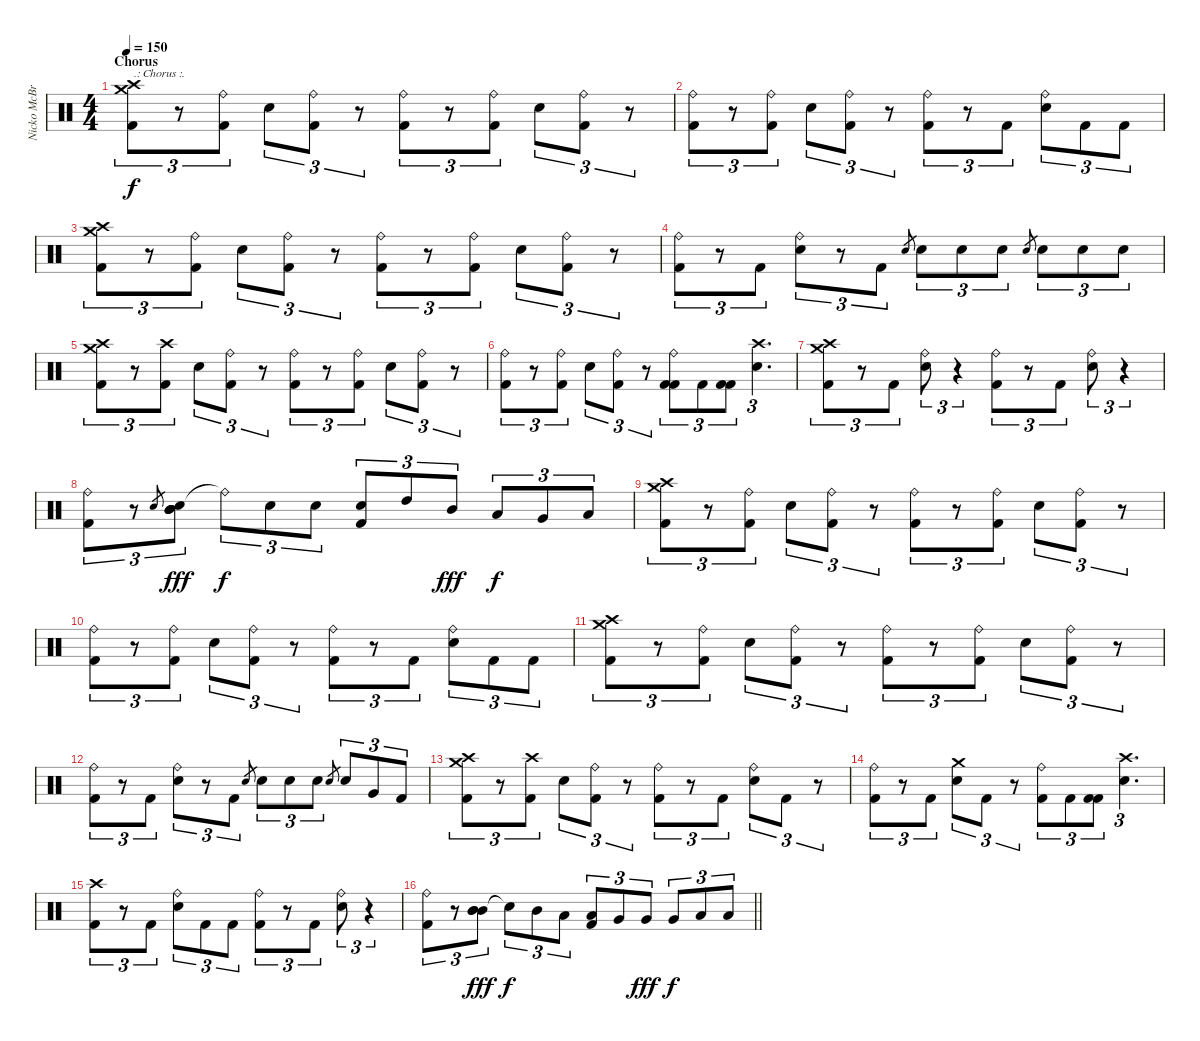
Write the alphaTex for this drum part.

\track ("Nicko McBrain" "Nicko McBr") {instrument percussion}
\staff {score}
\articulation defaults
\ts (4 4)
\section ("" "Chorus")
\tempo 150
\clef neutral
\ks c
("Crash medium (hit)" "Crash high (hit)" "Kick (hit) 2").8{tu (3 2) txt ".: Chorus :." dy f} r.8{tu (3 2)} ("Kick (hit) 2" "Ride (bell)").8{tu (3 2)} "Electric Snare (hit)".8{tu (3 2)} ("Ride (bell)" "Kick (hit) 2").8{tu (3 2)} r.8{tu (3 2)} ("Kick (hit) 2" "Ride (bell)").8{tu (3 2)} r.8{tu (3 2)} ("Ride (bell)" "Kick (hit) 2").8{tu (3 2)} "Electric Snare (hit)".8{tu (3 2)} ("Ride (bell)" "Kick (hit) 2").8{tu (3 2)} r.8{tu (3 2)} |
("Ride (bell)" "Kick (hit) 2").8{tu (3 2)} r.8{tu (3 2)} ("Kick (hit) 2" "Ride (bell)").8{tu (3 2)} "Electric Snare (hit)".8{tu (3 2)} ("Ride (bell)" "Kick (hit) 2").8{tu (3 2)} r.8{tu (3 2)} ("Kick (hit) 2" "Ride (bell)").8{tu (3 2)} r.8{tu (3 2)} "Kick (hit) 2".8{tu (3 2)} ("Ride (bell)" "Electric Snare (hit)").8{tu (3 2)} "Kick (hit) 2".8{tu (3 2)} "Kick (hit) 2".8{tu (3 2)} |
("Crash medium (hit)" "Crash high (hit)" "Kick (hit) 2").8{tu (3 2)} r.8{tu (3 2)} ("Kick (hit) 2" "Ride (bell)").8{tu (3 2)} "Electric Snare (hit)".8{tu (3 2)} ("Ride (bell)" "Kick (hit) 2").8{tu (3 2)} r.8{tu (3 2)} ("Kick (hit) 2" "Ride (bell)").8{tu (3 2)} r.8{tu (3 2)} ("Ride (bell)" "Kick (hit) 2").8{tu (3 2)} "Electric Snare (hit)".8{tu (3 2)} ("Ride (bell)" "Kick (hit) 2").8{tu (3 2)} r.8{tu (3 2)} |
("Ride (bell)" "Kick (hit) 2").8{tu (3 2)} r.8{tu (3 2)} "Kick (hit) 2".8{tu (3 2)} ("Ride (bell)" "Electric Snare (hit)").8{tu (3 2)} r.8{tu (3 2)} "Kick (hit) 2".8{tu (3 2)} "Electric Snare (hit)".8{gr} "Electric Snare (hit)".8{tu (3 2)} "Electric Snare (hit)".8{tu (3 2)} "Electric Snare (hit)".8{tu (3 2)} "Electric Snare (hit)".8{gr} "Electric Snare (hit)".8{tu (3 2)} "Electric Snare (hit)".8{tu (3 2)} "Electric Snare (hit)".8{tu (3 2)} |
("Crash medium (hit)" "Crash high (hit)" "Kick (hit) 2").8{tu (3 2)} r.8{tu (3 2)} ("Kick (hit) 2" "Crash high (hit)").8{tu (3 2)} "Electric Snare (hit)".8{tu (3 2)} ("Ride (bell)" "Kick (hit) 2").8{tu (3 2)} r.8{tu (3 2)} ("Kick (hit) 2" "Ride (bell)").8{tu (3 2)} r.8{tu (3 2)} ("Ride (bell)" "Kick (hit) 2").8{tu (3 2)} "Electric Snare (hit)".8{tu (3 2)} ("Ride (bell)" "Kick (hit) 2").8{tu (3 2)} r.8{tu (3 2)} |
("Ride (bell)" "Kick (hit) 2").8{tu (3 2)} r.8{tu (3 2)} ("Kick (hit) 2" "Ride (bell)").8{tu (3 2)} "Electric Snare (hit)".8{tu (3 2)} ("Ride (bell)" "Kick (hit) 2").8{tu (3 2)} r.8{tu (3 2)} ("Kick (hit) 2" "Ride (bell)" "Kick (hit) 2").8{tu (3 2)} "Kick (hit) 2".8{tu (3 2)} ("Kick (hit) 2" "Kick (hit) 2").8{tu (3 2)} ("Crash high (hit)" "Electric Snare (hit)").4{d tu (3 2)} |
("Crash high (hit)" "Crash medium (hit)" "Kick (hit) 2").8{tu (3 2)} r.8{tu (3 2)} "Kick (hit) 2".8{tu (3 2)} ("Ride (bell)" "Electric Snare (hit)").8{tu (3 2)} r.4{tu (3 2)} ("Kick (hit) 2" "Ride (bell)").8{tu (3 2)} r.8{tu (3 2)} "Kick (hit) 2".8{tu (3 2)} ("Ride (bell)" "Electric Snare (hit)").8{tu (3 2)} r.4{tu (3 2)} |
("Ride (bell)" "Kick (hit) 2").8{tu (3 2)} r.8{tu (3 2)} "Electric Snare (hit)".8{gr} ("Electric Snare (hit)" "Mid Tom (hit)" "Mid Tom (hit)" "Mid Tom (hit)").8{tu (3 2) dy fff} "Ride (bell)"{t}.8{tu (3 2) dy f} "Electric Snare (hit)".8{tu (3 2)} "Electric Snare (hit)".8{tu (3 2)} ("Kick (hit) 2" "Electric Snare (hit)").8{tu (3 2)} "High Tom (hit)".8{tu (3 2)} "Mid Tom (hit)".8{tu (3 2) dy fff} "Low Tom (hit)".8{tu (3 2) dy f} "Very Low Tom (hit)".8{tu (3 2)} "Low Floor Tom (hit)".8{tu (3 2)} |
("Crash medium (hit)" "Crash high (hit)" "Kick (hit) 2").8{tu (3 2)} r.8{tu (3 2)} ("Kick (hit) 2" "Ride (bell)").8{tu (3 2)} "Electric Snare (hit)".8{tu (3 2)} ("Ride (bell)" "Kick (hit) 2").8{tu (3 2)} r.8{tu (3 2)} ("Kick (hit) 2" "Ride (bell)").8{tu (3 2)} r.8{tu (3 2)} ("Ride (bell)" "Kick (hit) 2").8{tu (3 2)} "Electric Snare (hit)".8{tu (3 2)} ("Ride (bell)" "Kick (hit) 2").8{tu (3 2)} r.8{tu (3 2)} |
("Ride (bell)" "Kick (hit) 2").8{tu (3 2)} r.8{tu (3 2)} ("Kick (hit) 2" "Ride (bell)").8{tu (3 2)} "Electric Snare (hit)".8{tu (3 2)} ("Ride (bell)" "Kick (hit) 2").8{tu (3 2)} r.8{tu (3 2)} ("Kick (hit) 2" "Ride (bell)").8{tu (3 2)} r.8{tu (3 2)} "Kick (hit) 2".8{tu (3 2)} ("Ride (bell)" "Electric Snare (hit)").8{tu (3 2)} "Kick (hit) 2".8{tu (3 2)} "Kick (hit) 2".8{tu (3 2)} |
("Crash medium (hit)" "Crash high (hit)" "Kick (hit) 2").8{tu (3 2)} r.8{tu (3 2)} ("Kick (hit) 2" "Ride (bell)").8{tu (3 2)} "Electric Snare (hit)".8{tu (3 2)} ("Ride (bell)" "Kick (hit) 2").8{tu (3 2)} r.8{tu (3 2)} ("Kick (hit) 2" "Ride (bell)").8{tu (3 2)} r.8{tu (3 2)} ("Ride (bell)" "Kick (hit) 2").8{tu (3 2)} "Electric Snare (hit)".8{tu (3 2)} ("Ride (bell)" "Kick (hit) 2").8{tu (3 2)} r.8{tu (3 2)} |
("Ride (bell)" "Kick (hit) 2").8{tu (3 2)} r.8{tu (3 2)} "Kick (hit) 2".8{tu (3 2)} ("Ride (bell)" "Electric Snare (hit)").8{tu (3 2)} r.8{tu (3 2)} "Kick (hit) 2".8{tu (3 2)} "Electric Snare (hit)".8{gr} "Electric Snare (hit)".8{tu (3 2)} "Electric Snare (hit)".8{tu (3 2)} "Electric Snare (hit)".8{tu (3 2)} "Electric Snare (hit)".8{gr} "Electric Snare (hit)".8{tu (3 2)} "Very Low Tom (hit)".8{tu (3 2)} "Kick (hit) 2".8{tu (3 2)} |
("Crash medium (hit)" "Crash high (hit)" "Kick (hit) 2").8{tu (3 2)} r.8{tu (3 2)} ("Kick (hit) 2" "Crash high (hit)").8{tu (3 2)} "Electric Snare (hit)".8{tu (3 2)} ("Ride (bell)" "Kick (hit) 2").8{tu (3 2)} r.8{tu (3 2)} ("Kick (hit) 2" "Ride (bell)").8{tu (3 2)} r.8{tu (3 2)} "Kick (hit) 2".8{tu (3 2)} ("Ride (bell)" "Electric Snare (hit)").8{tu (3 2)} "Kick (hit) 2".8{tu (3 2)} r.8{tu (3 2)} |
("Ride (bell)" "Kick (hit) 2").8{tu (3 2)} r.8{tu (3 2)} "Kick (hit) 2".8{tu (3 2)} ("Crash medium (hit)" "Electric Snare (hit)").8{tu (3 2)} "Kick (hit) 2".8{tu (3 2)} r.8{tu (3 2)} ("Ride (bell)" "Kick (hit) 2").8{tu (3 2)} "Kick (hit) 2".8{tu (3 2)} ("Kick (hit) 2" "Kick (hit) 2").8{tu (3 2)} ("Crash high (hit)" "Electric Snare (hit)").4{d tu (3 2)} |
("Crash high (hit)" "Kick (hit) 2").8{tu (3 2)} r.8{tu (3 2)} "Kick (hit) 2".8{tu (3 2)} ("Ride (bell)" "Electric Snare (hit)").8{tu (3 2)} "Kick (hit) 2".8{tu (3 2)} "Kick (hit) 2".8{tu (3 2)} ("Kick (hit) 2" "Ride (bell)").8{tu (3 2)} r.8{tu (3 2)} "Kick (hit) 2".8{tu (3 2)} ("Ride (bell)" "Electric Snare (hit)").8{tu (3 2)} r.4{tu (3 2)} |
\barLineRight lightlight
("Ride (bell)" "Kick (hit) 2").8{tu (3 2)} r.8{tu (3 2)} ("Mid Tom (hit)" "Mid Tom (hit)" "Mid Tom (hit)").8{tu (3 2) dy fff} "Snare (hit)"{t}.8{tu (3 2) dy f} "Mid Tom (hit)".8{tu (3 2)} "Low Tom (hit)".8{tu (3 2)} ("Kick (hit) 2" "Low Tom (hit)").8{tu (3 2)} "Very Low Tom (hit)".8{tu (3 2)} "Very Low Tom (hit)".8{tu (3 2) dy fff} "Very Low Tom (hit)".8{tu (3 2) dy f} "Low Floor Tom (hit)".8{tu (3 2)} "Low Floor Tom (hit)".8{tu (3 2)}
